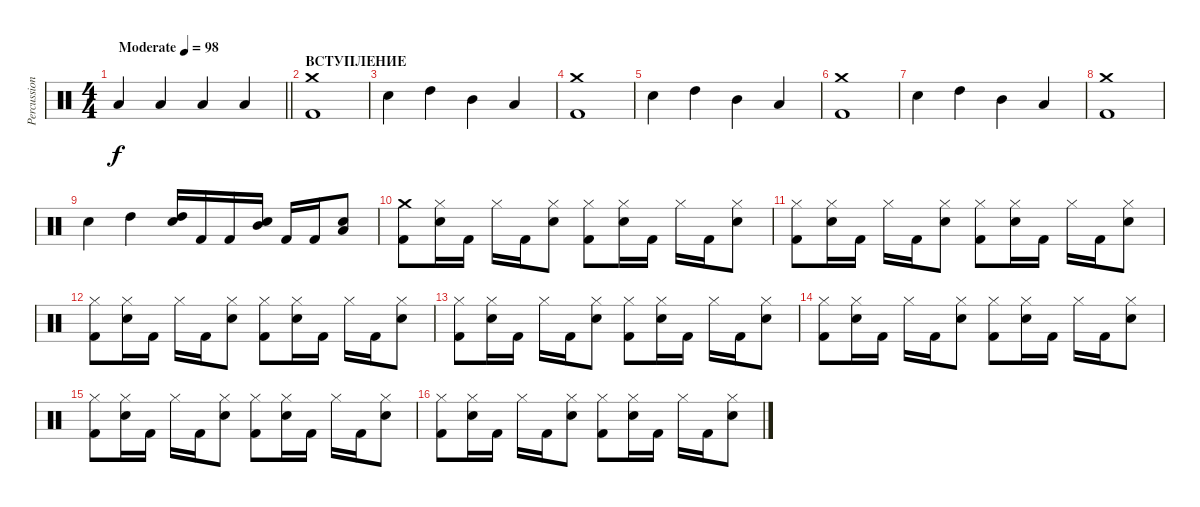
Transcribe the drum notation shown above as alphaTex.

\track ("Percussion" "Percussion") {instrument percussion}
\staff {score}
\articulation defaults
\ts (4 4)
\tempo (98 "Moderate")
\clef neutral
\barLineRight lightlight
\ks c "Low Tom (hit)".4{dy f} "Low Tom (hit)".4 "Low Tom (hit)".4 "Low Tom (hit)".4
|
\section ("" "ВСТУПЛЕНИЕ")
("Crash medium (hit)" "Kick (hit) 2").1 |
"Electric Snare (hit)".4 "High Tom (hit)".4 "Mid Tom (hit)".4 "Low Tom (hit)".4 |
("Crash medium (hit)" "Kick (hit) 2").1 |
"Electric Snare (hit)".4 "High Tom (hit)".4 "Mid Tom (hit)".4 "Low Tom (hit)".4 |
("Crash medium (hit)" "Kick (hit) 2").1 |
"Electric Snare (hit)".4 "High Tom (hit)".4 "Mid Tom (hit)".4 "Low Tom (hit)".4 |
("Crash medium (hit)" "Kick (hit) 2").1 |
"Electric Snare (hit)".4 "High Tom (hit)".4 ("High Tom (hit)" "Electric Snare (hit)").16 "Kick (hit) 2".16 "Kick (hit) 2".16 ("Mid Tom (hit)" "Electric Snare (hit)").16 "Kick (hit) 2".16 "Kick (hit) 2".16 ("Low Tom (hit)" "Electric Snare (hit)").8 |
("Crash medium (hit)" "Kick (hit) 2").8 ("Hi-Hat (closed)" "Electric Snare (hit)").16 "Kick (hit) 2".16 "Hi-Hat (closed)".16 "Kick (hit) 2".16 ("Hi-Hat (closed)" "Electric Snare (hit)").8 ("Hi-Hat (closed)" "Kick (hit) 2").8 ("Hi-Hat (closed)" "Electric Snare (hit)").16 "Kick (hit) 2".16 "Hi-Hat (closed)".16 "Kick (hit) 2".16 ("Hi-Hat (closed)" "Electric Snare (hit)").8 |
("Hi-Hat (closed)" "Kick (hit) 2").8 ("Hi-Hat (closed)" "Electric Snare (hit)").16 "Kick (hit) 2".16 "Hi-Hat (closed)".16 "Kick (hit) 2".16 ("Hi-Hat (closed)" "Electric Snare (hit)").8 ("Hi-Hat (closed)" "Kick (hit) 2").8 ("Hi-Hat (closed)" "Electric Snare (hit)").16 "Kick (hit) 2".16 "Hi-Hat (closed)".16 "Kick (hit) 2".16 ("Hi-Hat (closed)" "Electric Snare (hit)").8 |
("Hi-Hat (closed)" "Kick (hit) 2").8 ("Hi-Hat (closed)" "Electric Snare (hit)").16 "Kick (hit) 2".16 "Hi-Hat (closed)".16 "Kick (hit) 2".16 ("Hi-Hat (closed)" "Electric Snare (hit)").8 ("Hi-Hat (closed)" "Kick (hit) 2").8 ("Hi-Hat (closed)" "Electric Snare (hit)").16 "Kick (hit) 2".16 "Hi-Hat (closed)".16 "Kick (hit) 2".16 ("Hi-Hat (closed)" "Electric Snare (hit)").8 |
("Hi-Hat (closed)" "Kick (hit) 2").8 ("Hi-Hat (closed)" "Electric Snare (hit)").16 "Kick (hit) 2".16 "Hi-Hat (closed)".16 "Kick (hit) 2".16 ("Hi-Hat (closed)" "Electric Snare (hit)").8 ("Hi-Hat (closed)" "Kick (hit) 2").8 ("Hi-Hat (closed)" "Electric Snare (hit)").16 "Kick (hit) 2".16 "Hi-Hat (closed)".16 "Kick (hit) 2".16 ("Hi-Hat (closed)" "Electric Snare (hit)").8 |
("Hi-Hat (closed)" "Kick (hit) 2").8 ("Hi-Hat (closed)" "Electric Snare (hit)").16 "Kick (hit) 2".16 "Hi-Hat (closed)".16 "Kick (hit) 2".16 ("Hi-Hat (closed)" "Electric Snare (hit)").8 ("Hi-Hat (closed)" "Kick (hit) 2").8 ("Hi-Hat (closed)" "Electric Snare (hit)").16 "Kick (hit) 2".16 "Hi-Hat (closed)".16 "Kick (hit) 2".16 ("Hi-Hat (closed)" "Electric Snare (hit)").8 |
("Hi-Hat (closed)" "Kick (hit) 2").8 ("Hi-Hat (closed)" "Electric Snare (hit)").16 "Kick (hit) 2".16 "Hi-Hat (closed)".16 "Kick (hit) 2".16 ("Hi-Hat (closed)" "Electric Snare (hit)").8 ("Hi-Hat (closed)" "Kick (hit) 2").8 ("Hi-Hat (closed)" "Electric Snare (hit)").16 "Kick (hit) 2".16 "Hi-Hat (closed)".16 "Kick (hit) 2".16 ("Hi-Hat (closed)" "Electric Snare (hit)").8 |
("Hi-Hat (closed)" "Kick (hit) 2").8 ("Hi-Hat (closed)" "Electric Snare (hit)").16 "Kick (hit) 2".16 "Hi-Hat (closed)".16 "Kick (hit) 2".16 ("Hi-Hat (closed)" "Electric Snare (hit)").8 ("Hi-Hat (closed)" "Kick (hit) 2").8 ("Hi-Hat (closed)" "Electric Snare (hit)").16 "Kick (hit) 2".16 "Hi-Hat (closed)".16 "Kick (hit) 2".16 ("Hi-Hat (closed)" "Electric Snare (hit)").8
